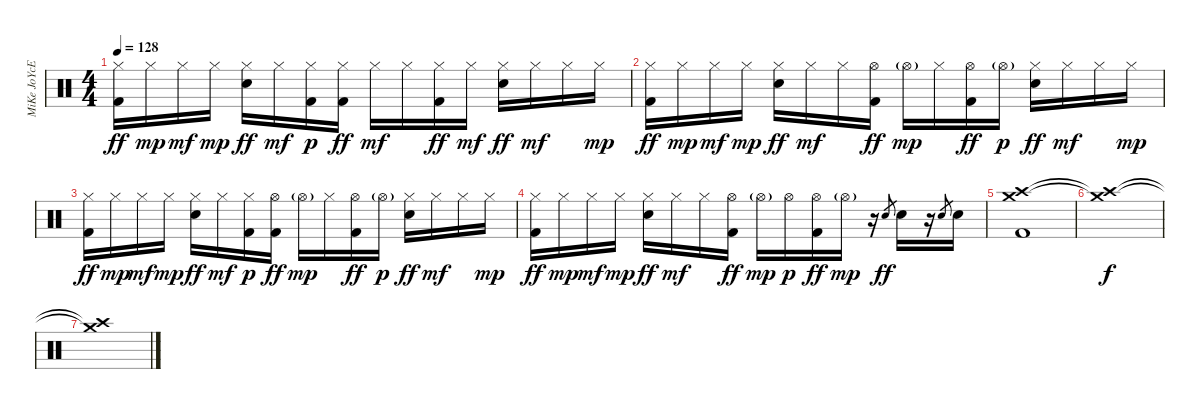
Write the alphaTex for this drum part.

\track ("MiKe JoYcE" "MiKe JoYcE") {instrument percussion}
\staff {score}
\articulation defaults
\ts (4 4)
\tempo 128
\clef neutral
\ks c
("Hi-Hat (closed)" "Kick (hit) 2").16{dy ff} "Hi-Hat (closed)".16{dy mp} "Hi-Hat (closed)".16{dy mf} "Hi-Hat (closed)".16{dy mp} ("Hi-Hat (closed)" "Electric Snare (hit)").16{dy ff} "Hi-Hat (closed)".16{dy mf} ("Hi-Hat (closed)" "Kick (hit) 2").16{dy p} ("Hi-Hat (closed)" "Kick (hit) 2").16{dy ff} "Hi-Hat (closed)".16{dy mf} "Hi-Hat (closed)".16 ("Hi-Hat (closed)" "Kick (hit) 2").16{dy ff} "Hi-Hat (closed)".16{dy mf} ("Hi-Hat (closed)" "Electric Snare (hit)").16{dy ff} "Hi-Hat (closed)".16{dy mf} "Hi-Hat (closed)".16 "Hi-Hat (closed)".16{dy mp} |
("Hi-Hat (closed)" "Kick (hit) 2").16{dy ff} "Hi-Hat (closed)".16{dy mp} "Hi-Hat (closed)".16{dy mf} "Hi-Hat (closed)".16{dy mp} ("Hi-Hat (closed)" "Electric Snare (hit)").16{dy ff} "Hi-Hat (closed)".16{dy mf} "Hi-Hat (closed)".16 ("Hi-Hat (open)" "Kick (hit) 2").16{dy ff} "Hi-Hat (open)"{g}.16{dy mp volume 11} "Hi-Hat (closed)".16{volume 12} ("Hi-Hat (open)" "Kick (hit) 2").16{dy ff} "Hi-Hat (open)"{g}.16{dy p} ("Hi-Hat (closed)" "Electric Snare (hit)").16{dy ff} "Hi-Hat (closed)".16{dy mf} "Hi-Hat (closed)".16 "Hi-Hat (closed)".16{dy mp} |
("Hi-Hat (closed)" "Kick (hit) 2").16{dy ff} "Hi-Hat (closed)".16{dy mp} "Hi-Hat (closed)".16{dy mf} "Hi-Hat (closed)".16{dy mp} ("Hi-Hat (closed)" "Electric Snare (hit)").16{dy ff} "Hi-Hat (closed)".16{dy mf} ("Hi-Hat (closed)" "Kick (hit) 2").16{dy p} ("Hi-Hat (open)" "Kick (hit) 2").16{dy ff} "Hi-Hat (open)"{g}.16{dy mp volume 11} "Hi-Hat (closed)".16{volume 12} ("Hi-Hat (open)" "Kick (hit) 2").16{dy ff} "Hi-Hat (open)"{g}.16{dy p} ("Hi-Hat (closed)" "Electric Snare (hit)").16{dy ff} "Hi-Hat (closed)".16{dy mf} "Hi-Hat (closed)".16 "Hi-Hat (closed)".16{dy mp} |
("Hi-Hat (closed)" "Kick (hit) 2").16{dy ff} "Hi-Hat (closed)".16{dy mp} "Hi-Hat (closed)".16{dy mf} "Hi-Hat (closed)".16{dy mp} ("Hi-Hat (closed)" "Electric Snare (hit)").16{dy ff} "Hi-Hat (closed)".16{dy mf} "Hi-Hat (closed)".16 ("Hi-Hat (open)" "Kick (hit) 2").16{dy ff} "Hi-Hat (open)"{g}.16{dy mp volume 11} "Hi-Hat (open)".16{dy p volume 12} ("Hi-Hat (open)" "Kick (hit) 2").16{dy ff} "Hi-Hat (open)"{g}.16{dy mp volume 11} r.16 "Electric Snare (hit)".8{gr dy ff} "Electric Snare (hit)".16{volume 12} r.16 "Electric Snare (hit)".8{gr} "Electric Snare (hit)".16 |
("Crash high (hit)" "Crash medium (hit)" "Kick (hit) 2").1 |
("Crash high (hit)"{t} "Crash medium (hit)"{t}).1{dy f} |
("Crash high (hit)"{t} "Crash medium (hit)"{t}).1
